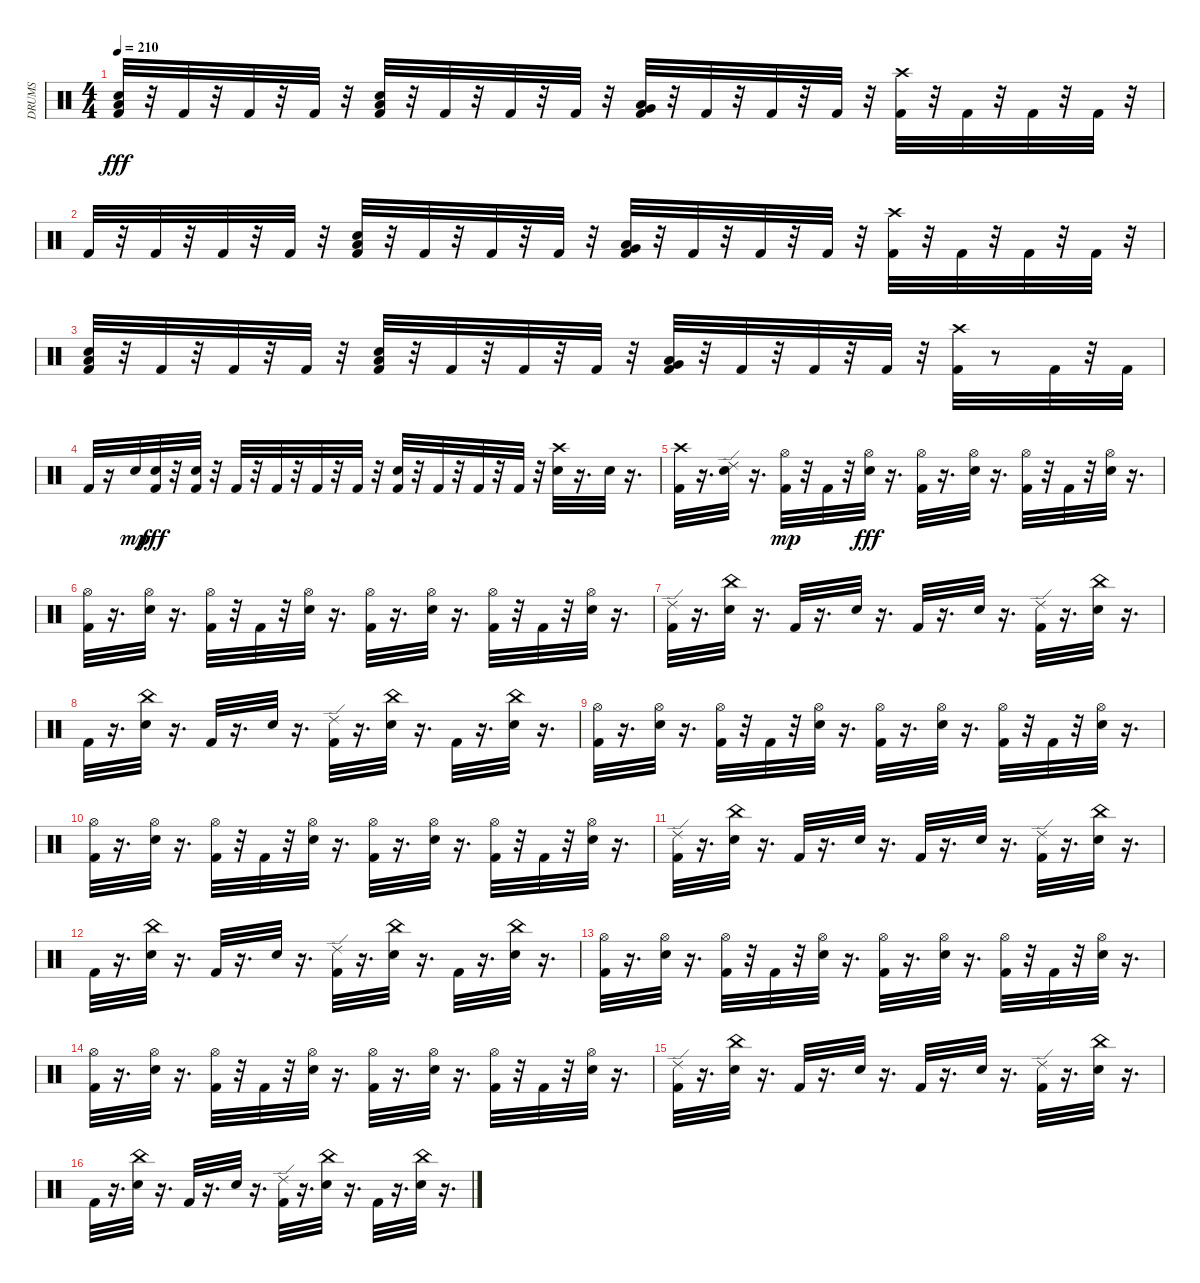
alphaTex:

\track ("DRUMS" "DRUMS") {instrument percussion}
\staff {score}
\articulation defaults
\ts (4 4)
\tempo 210
\clef neutral
\ks c
("Electric Snare (hit)" "Low Floor Tom (hit)" "Kick (hit) 2").32{dy fff} r.32 "Kick (hit) 2".32 r.32 "Kick (hit) 2".32 r.32 "Kick (hit) 2".32 r.32 ("Electric Snare (hit)" "Low Floor Tom (hit)" "Kick (hit) 2").32 r.32 "Kick (hit) 2".32 r.32 "Kick (hit) 2".32 r.32 "Kick (hit) 2".32 r.32 ("Very Low Tom (hit)" "Low Floor Tom (hit)" "Kick (hit) 2").32 r.32 "Kick (hit) 2".32 r.32 "Kick (hit) 2".32 r.32 "Kick (hit) 2".32 r.32 ("Crash high (hit)" "Kick (hit) 2").32 r.32 "Kick (hit) 2".32 r.32 "Kick (hit) 2".32 r.32 "Kick (hit) 2".32 r.32 |
"Kick (hit) 2".32 r.32 "Kick (hit) 2".32 r.32 "Kick (hit) 2".32 r.32 "Kick (hit) 2".32 r.32 ("Electric Snare (hit)" "Low Floor Tom (hit)" "Kick (hit) 2").32 r.32 "Kick (hit) 2".32 r.32 "Kick (hit) 2".32 r.32 "Kick (hit) 2".32 r.32 ("Very Low Tom (hit)" "Low Floor Tom (hit)" "Kick (hit) 2").32 r.32 "Kick (hit) 2".32 r.32 "Kick (hit) 2".32 r.32 "Kick (hit) 2".32 r.32 ("Crash high (hit)" "Kick (hit) 2").32 r.32 "Kick (hit) 2".32 r.32 "Kick (hit) 2".32 r.32 "Kick (hit) 2".32 r.32 |
("Electric Snare (hit)" "Low Floor Tom (hit)" "Kick (hit) 2").32 r.32 "Kick (hit) 2".32 r.32 "Kick (hit) 2".32 r.32 "Kick (hit) 2".32 r.32 ("Electric Snare (hit)" "Low Floor Tom (hit)" "Kick (hit) 2").32 r.32 "Kick (hit) 2".32 r.32 "Kick (hit) 2".32 r.32 "Kick (hit) 2".32 r.32 ("Very Low Tom (hit)" "Low Floor Tom (hit)" "Kick (hit) 2").32 r.32 "Kick (hit) 2".32 r.32 "Kick (hit) 2".32 r.32 "Kick (hit) 2".32 r.32 ("Crash high (hit)" "Kick (hit) 2").32 r.8 "Kick (hit) 2".32 r.32 "Kick (hit) 2".32 |
"Kick (hit) 2".32 r.16 "Electric Snare (hit)".32{dy mp} ("Electric Snare (hit)" "Kick (hit) 2").32{dy fff} r.32 ("Electric Snare (hit)" "Kick (hit) 2").32 r.32 "Kick (hit) 2".32 r.32 "Kick (hit) 2".32 r.32 "Kick (hit) 2".32 r.32 "Kick (hit) 2".32 r.32 ("Electric Snare (hit)" "Kick (hit) 2").32 r.32 "Kick (hit) 2".32 r.32 "Kick (hit) 2".32 r.32 "Kick (hit) 2".32 r.32 ("Crash high (hit)" "Electric Snare (hit)").32 r.16{d} "Electric Snare (hit)".32 r.16{d} |
("Crash high (hit)" "Kick (hit) 2").32 r.16{d} ("Ride (edge) 2" "Electric Snare (hit)").32 r.16{d} ("Hi-Hat (open)" "Kick (hit) 2").32{dy mp} r.32 "Kick (hit) 2".32 r.32 ("Hi-Hat (open)" "Electric Snare (hit)").32{dy fff} r.16{d} ("Hi-Hat (open)" "Kick (hit) 2").32 r.16{d} ("Hi-Hat (open)" "Electric Snare (hit)").32 r.16{d} ("Hi-Hat (open)" "Kick (hit) 2").32 r.32 "Kick (hit) 2".32 r.32 ("Hi-Hat (open)" "Electric Snare (hit)").32 r.16{d} |
("Hi-Hat (open)" "Kick (hit) 2").32 r.16{d} ("Hi-Hat (open)" "Electric Snare (hit)").32 r.16{d} ("Hi-Hat (open)" "Kick (hit) 2").32 r.32 "Kick (hit) 2".32 r.32 ("Hi-Hat (open)" "Electric Snare (hit)").32 r.16{d} ("Hi-Hat (open)" "Kick (hit) 2").32 r.16{d} ("Hi-Hat (open)" "Electric Snare (hit)").32 r.16{d} ("Hi-Hat (open)" "Kick (hit) 2").32 r.32 "Kick (hit) 2".32 r.32 ("Hi-Hat (open)" "Electric Snare (hit)").32 r.16{d} |
("Ride (edge) 2" "Kick (hit) 2").32 r.16{d} ("China (hit)" "Electric Snare (hit)").32 r.16{d} "Kick (hit) 2".32 r.16{d} "Electric Snare (hit)".32 r.16{d} "Kick (hit) 2".32 r.16{d} "Electric Snare (hit)".32 r.16{d} ("Ride (edge) 2" "Kick (hit) 2").32 r.16{d} ("China (hit)" "Electric Snare (hit)").32 r.16{d} |
"Kick (hit) 2".32 r.16{d} ("China (hit)" "Electric Snare (hit)").32 r.16{d} "Kick (hit) 2".32 r.16{d} "Electric Snare (hit)".32 r.16{d} ("Ride (edge) 2" "Kick (hit) 2").32 r.16{d} ("China (hit)" "Electric Snare (hit)").32 r.16{d} "Kick (hit) 2".32 r.16{d} ("China (hit)" "Electric Snare (hit)").32 r.16{d} |
("Hi-Hat (open)" "Kick (hit) 2").32 r.16{d} ("Hi-Hat (open)" "Electric Snare (hit)").32 r.16{d} ("Hi-Hat (open)" "Kick (hit) 2").32 r.32 "Kick (hit) 2".32 r.32 ("Hi-Hat (open)" "Electric Snare (hit)").32 r.16{d} ("Hi-Hat (open)" "Kick (hit) 2").32 r.16{d} ("Hi-Hat (open)" "Electric Snare (hit)").32 r.16{d} ("Hi-Hat (open)" "Kick (hit) 2").32 r.32 "Kick (hit) 2".32 r.32 ("Hi-Hat (open)" "Electric Snare (hit)").32 r.16{d} |
("Hi-Hat (open)" "Kick (hit) 2").32 r.16{d} ("Hi-Hat (open)" "Electric Snare (hit)").32 r.16{d} ("Hi-Hat (open)" "Kick (hit) 2").32 r.32 "Kick (hit) 2".32 r.32 ("Hi-Hat (open)" "Electric Snare (hit)").32 r.16{d} ("Hi-Hat (open)" "Kick (hit) 2").32 r.16{d} ("Hi-Hat (open)" "Electric Snare (hit)").32 r.16{d} ("Hi-Hat (open)" "Kick (hit) 2").32 r.32 "Kick (hit) 2".32 r.32 ("Hi-Hat (open)" "Electric Snare (hit)").32 r.16{d} |
("Ride (edge) 2" "Kick (hit) 2").32 r.16{d} ("China (hit)" "Electric Snare (hit)").32 r.16{d} "Kick (hit) 2".32 r.16{d} "Electric Snare (hit)".32 r.16{d} "Kick (hit) 2".32 r.16{d} "Electric Snare (hit)".32 r.16{d} ("Ride (edge) 2" "Kick (hit) 2").32 r.16{d} ("China (hit)" "Electric Snare (hit)").32 r.16{d} |
"Kick (hit) 2".32 r.16{d} ("China (hit)" "Electric Snare (hit)").32 r.16{d} "Kick (hit) 2".32 r.16{d} "Electric Snare (hit)".32 r.16{d} ("Ride (edge) 2" "Kick (hit) 2").32 r.16{d} ("China (hit)" "Electric Snare (hit)").32 r.16{d} "Kick (hit) 2".32 r.16{d} ("China (hit)" "Electric Snare (hit)").32 r.16{d} |
("Hi-Hat (open)" "Kick (hit) 2").32 r.16{d} ("Hi-Hat (open)" "Electric Snare (hit)").32 r.16{d} ("Hi-Hat (open)" "Kick (hit) 2").32 r.32 "Kick (hit) 2".32 r.32 ("Hi-Hat (open)" "Electric Snare (hit)").32 r.16{d} ("Hi-Hat (open)" "Kick (hit) 2").32 r.16{d} ("Hi-Hat (open)" "Electric Snare (hit)").32 r.16{d} ("Hi-Hat (open)" "Kick (hit) 2").32 r.32 "Kick (hit) 2".32 r.32 ("Hi-Hat (open)" "Electric Snare (hit)").32 r.16{d} |
("Hi-Hat (open)" "Kick (hit) 2").32 r.16{d} ("Hi-Hat (open)" "Electric Snare (hit)").32 r.16{d} ("Hi-Hat (open)" "Kick (hit) 2").32 r.32 "Kick (hit) 2".32 r.32 ("Hi-Hat (open)" "Electric Snare (hit)").32 r.16{d} ("Hi-Hat (open)" "Kick (hit) 2").32 r.16{d} ("Hi-Hat (open)" "Electric Snare (hit)").32 r.16{d} ("Hi-Hat (open)" "Kick (hit) 2").32 r.32 "Kick (hit) 2".32 r.32 ("Hi-Hat (open)" "Electric Snare (hit)").32 r.16{d} |
("Ride (edge) 2" "Kick (hit) 2").32 r.16{d} ("China (hit)" "Electric Snare (hit)").32 r.16{d} "Kick (hit) 2".32 r.16{d} "Electric Snare (hit)".32 r.16{d} "Kick (hit) 2".32 r.16{d} "Electric Snare (hit)".32 r.16{d} ("Ride (edge) 2" "Kick (hit) 2").32 r.16{d} ("China (hit)" "Electric Snare (hit)").32 r.16{d} |
"Kick (hit) 2".32 r.16{d} ("China (hit)" "Electric Snare (hit)").32 r.16{d} "Kick (hit) 2".32 r.16{d} "Electric Snare (hit)".32 r.16{d} ("Ride (edge) 2" "Kick (hit) 2").32 r.16{d} ("China (hit)" "Electric Snare (hit)").32 r.16{d} "Kick (hit) 2".32 r.16{d} ("China (hit)" "Electric Snare (hit)").32 r.16{d}
